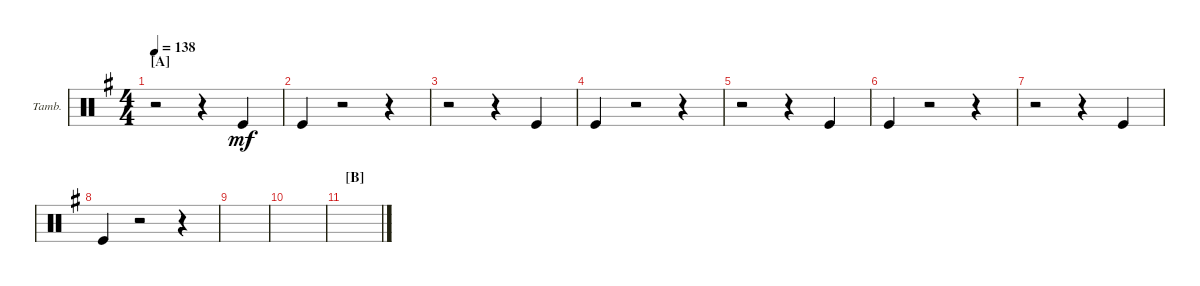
\defaultSystemsLayout 4
\bracketExtendMode groupsimilarinstruments
\firstSystemTrackNameOrientation horizontal
\otherSystemsTrackNameOrientation horizontal
\track ("Tambourine" "Tamb.") {instrument percussion}
\staff {score}
\articulation defaults
\ts (4 4)
\section ("A" "")
\tempo 138
\clef neutral
\scale
0.504425
\ks g
r.2{dy mf} r.4 "Kick (hit)".4 |
\scale
0.247788 "Kick (hit)".4 r.2 r.4 |
\scale
0.247788 r.2 r.4 "Kick (hit)".4 |
\scale
0.333333 "Kick (hit)".4 r.2 r.4 |
\scale
0.333333 r.2 r.4 "Kick (hit)".4 |
\scale
0.333333 "Kick (hit)".4 r.2 r.4 |
\scale
0.333333 r.2 r.4 "Kick (hit)".4 |
\scale
0.333333 "Kick (hit)".4 r.2 r.4 |
\scale
0.333333 |
\scale
0.333333 |
\section ("B" "")
\scale
0.333333 |
\scale
0.333333 |
\scale
0.333333 |
\scale
0.333333 |
\scale
0.333333
